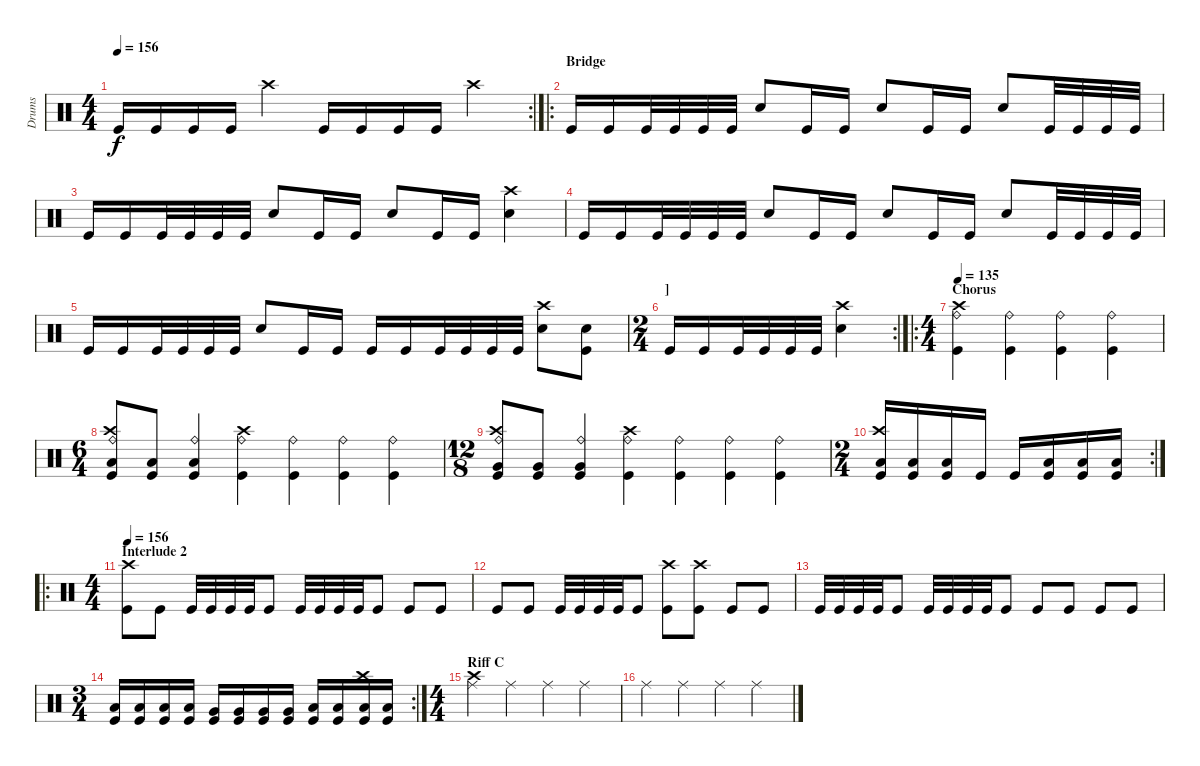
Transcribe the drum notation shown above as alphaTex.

\track ("Drums" "Drums") {instrument percussion}
\staff {score}
\articulation defaults
\rc 2
\ts (4 4)
\tempo 156
\clef neutral
\ks c "Kick (hit)".16{dy f} "Kick (hit)".16 "Kick (hit)".16 "Kick (hit)".16 "Crash high (hit)".4 "Kick (hit)".16 "Kick (hit)".16 "Kick (hit)".16 "Kick (hit)".16 "Crash high (hit)".4
|
\ro
\section ("" "Bridge")
"Kick (hit)".16 "Kick (hit)".16 "Kick (hit)".32 "Kick (hit)".32 "Kick (hit)".32 "Kick (hit)".32 "Electric Snare (hit)".8 "Kick (hit)".16 "Kick (hit)".16 "Electric Snare (hit)".8 "Kick (hit)".16 "Kick (hit)".16 "Electric Snare (hit)".8 "Kick (hit)".32 "Kick (hit)".32 "Kick (hit)".32 "Kick (hit)".32 |
"Kick (hit)".16 "Kick (hit)".16 "Kick (hit)".32 "Kick (hit)".32 "Kick (hit)".32 "Kick (hit)".32 "Electric Snare (hit)".8 "Kick (hit)".16 "Kick (hit)".16 "Electric Snare (hit)".8 "Kick (hit)".16 "Kick (hit)".16 ("Crash high (hit)" "Electric Snare (hit)").4 |
"Kick (hit)".16 "Kick (hit)".16 "Kick (hit)".32 "Kick (hit)".32 "Kick (hit)".32 "Kick (hit)".32 "Electric Snare (hit)".8 "Kick (hit)".16 "Kick (hit)".16 "Electric Snare (hit)".8 "Kick (hit)".16 "Kick (hit)".16 "Electric Snare (hit)".8 "Kick (hit)".32 "Kick (hit)".32 "Kick (hit)".32 "Kick (hit)".32 |
"Kick (hit)".16 "Kick (hit)".16 "Kick (hit)".32 "Kick (hit)".32 "Kick (hit)".32 "Kick (hit)".32 "Electric Snare (hit)".8 "Kick (hit)".16 "Kick (hit)".16 "Kick (hit)".16 "Kick (hit)".16 "Kick (hit)".32 "Kick (hit)".32 "Kick (hit)".32 "Kick (hit)".32 ("Crash high (hit)" "Electric Snare (hit)").8 ("Electric Snare (hit)" "Kick (hit)").8 |
\rc 2
\ts (2 4)
\section ("" "]")
"Kick (hit)".16 "Kick (hit)".16 "Kick (hit)".32 "Kick (hit)".32 "Kick (hit)".32 "Kick (hit)".32 ("Crash high (hit)" "Electric Snare (hit)").4 |
\ro
\ts (4 4)
\section ("" "Chorus")
\tempo 135
("Crash high (hit)" "Ride (bell)" "Kick (hit)").4 ("Ride (bell)" "Kick (hit)").4 ("Ride (bell)" "Kick (hit)").4 ("Ride (bell)" "Kick (hit)").4 |
\ts (6 4)
("Ride (bell)" "Crash high (hit)" "Low Floor Tom (hit)" "Kick (hit)").8 ("Low Floor Tom (hit)" "Kick (hit)").8 ("Ride (bell)" "Low Floor Tom (hit)" "Kick (hit)").4 ("Crash high (hit)" "Ride (bell)" "Kick (hit)").4 ("Kick (hit)" "Ride (bell)").4 ("Ride (bell)" "Kick (hit)").4 ("Ride (bell)" "Kick (hit)").4 |
\ts (12 8)
("Ride (bell)" "Crash high (hit)" "Very Low Tom (hit)" "Kick (hit)").8 ("Very Low Tom (hit)" "Kick (hit)").8 ("Ride (bell)" "Very Low Tom (hit)" "Kick (hit)").4 ("Crash high (hit)" "Ride (bell)" "Kick (hit)").4 ("Kick (hit)" "Ride (bell)").4 ("Ride (bell)" "Kick (hit)").4 ("Ride (bell)" "Kick (hit)").4 |
\rc 2
\ts (2 4)
("Crash high (hit)" "Low Floor Tom (hit)" "Kick (hit)").16 ("Low Floor Tom (hit)" "Kick (hit)").16 ("Low Floor Tom (hit)" "Kick (hit)").16 "Kick (hit)".16 "Kick (hit)".16 ("Low Floor Tom (hit)" "Kick (hit)").16 ("Low Floor Tom (hit)" "Kick (hit)").16 ("Low Floor Tom (hit)" "Kick (hit)").16 |
\ro
\ts (4 4)
\section ("" "Interlude 2")
\tempo 156
("Crash high (hit)" "Kick (hit)").8 "Kick (hit)".8 "Kick (hit)".32 "Kick (hit)".32 "Kick (hit)".32 "Kick (hit)".32 "Kick (hit)".8 "Kick (hit)".32 "Kick (hit)".32 "Kick (hit)".32 "Kick (hit)".32 "Kick (hit)".8 "Kick (hit)".8 "Kick (hit)".8 |
"Kick (hit)".8 "Kick (hit)".8 "Kick (hit)".32 "Kick (hit)".32 "Kick (hit)".32 "Kick (hit)".32 "Kick (hit)".8 ("Crash high (hit)" "Kick (hit)").8 ("Crash high (hit)" "Kick (hit)").8 "Kick (hit)".8 "Kick (hit)".8 |
"Kick (hit)".32 "Kick (hit)".32 "Kick (hit)".32 "Kick (hit)".32 "Kick (hit)".8 "Kick (hit)".32 "Kick (hit)".32 "Kick (hit)".32 "Kick (hit)".32 "Kick (hit)".8 "Kick (hit)".8 "Kick (hit)".8 "Kick (hit)".8 "Kick (hit)".8 |
\rc 2
\ts (3 4)
("Kick (hit)" "Low Tom (hit)").16 ("Kick (hit)" "Low Tom (hit)").16 ("Kick (hit)" "Low Tom (hit)").16 ("Kick (hit)" "Low Tom (hit)").16 ("Kick (hit)" "Very Low Tom (hit)").16 ("Kick (hit)" "Very Low Tom (hit)").16 ("Kick (hit)" "Very Low Tom (hit)").16 ("Kick (hit)" "Very Low Tom (hit)").16 ("Kick (hit)" "Low Floor Tom (hit)").16 ("Kick (hit)" "Low Floor Tom (hit)").16 ("Crash high (hit)" "Kick (hit)" "Low Floor Tom (hit)").16 ("Kick (hit)" "Low Floor Tom (hit)").16 |
\ts (4 4)
\section ("" "Riff C")
("Crash high (hit)" "Ride (middle)").4 "Ride (middle)".4 "Ride (middle)".4 "Ride (middle)".4 |
"Ride (middle)".4 "Ride (middle)".4 "Ride (middle)".4 "Ride (middle)".4
